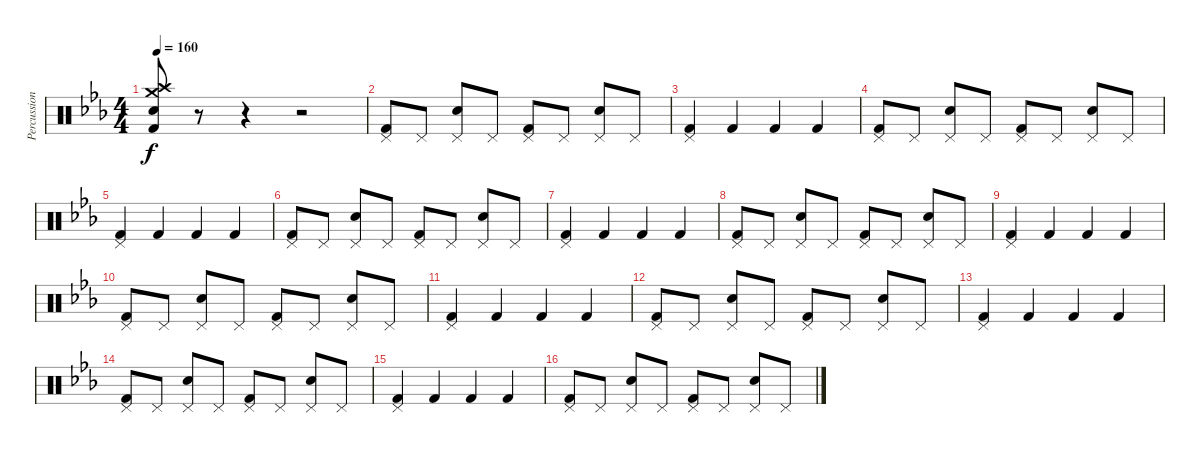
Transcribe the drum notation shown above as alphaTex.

\track ("Percussions" "Percussion") {instrument percussion}
\staff {score}
\articulation defaults
\ts (4 4)
\tempo 160
\clef neutral
\ks eb
("Kick (hit) 2" "Crash medium (hit)" "Crash high (hit)" "Electric Snare (hit)").8{dy f} r.8 r.4 r.2 |
("Pedal Hi-Hat (hit)" "Kick (hit) 2").8 "Pedal Hi-Hat (hit)".8 ("Pedal Hi-Hat (hit)" "Snare (hit) 2").8 "Pedal Hi-Hat (hit)".8 ("Pedal Hi-Hat (hit)" "Kick (hit) 2").8 "Pedal Hi-Hat (hit)".8 ("Pedal Hi-Hat (hit)" "Snare (hit) 2").8 "Pedal Hi-Hat (hit)".8 |
("Pedal Hi-Hat (hit)" "Kick (hit) 2").4 "Kick (hit) 2".4 "Kick (hit) 2".4 "Kick (hit) 2".4 |
("Pedal Hi-Hat (hit)" "Kick (hit) 2").8 "Pedal Hi-Hat (hit)".8 ("Pedal Hi-Hat (hit)" "Snare (hit) 2").8 "Pedal Hi-Hat (hit)".8 ("Pedal Hi-Hat (hit)" "Kick (hit) 2").8 "Pedal Hi-Hat (hit)".8 ("Pedal Hi-Hat (hit)" "Snare (hit) 2").8 "Pedal Hi-Hat (hit)".8 |
("Pedal Hi-Hat (hit)" "Kick (hit) 2").4 "Kick (hit) 2".4 "Kick (hit) 2".4 "Kick (hit) 2".4 |
("Pedal Hi-Hat (hit)" "Kick (hit) 2").8 "Pedal Hi-Hat (hit)".8 ("Pedal Hi-Hat (hit)" "Snare (hit) 2").8 "Pedal Hi-Hat (hit)".8 ("Pedal Hi-Hat (hit)" "Kick (hit) 2").8 "Pedal Hi-Hat (hit)".8 ("Pedal Hi-Hat (hit)" "Snare (hit) 2").8 "Pedal Hi-Hat (hit)".8 |
("Pedal Hi-Hat (hit)" "Kick (hit) 2").4 "Kick (hit) 2".4 "Kick (hit) 2".4 "Kick (hit) 2".4 |
("Pedal Hi-Hat (hit)" "Kick (hit) 2").8 "Pedal Hi-Hat (hit)".8 ("Pedal Hi-Hat (hit)" "Snare (hit) 2").8 "Pedal Hi-Hat (hit)".8 ("Pedal Hi-Hat (hit)" "Kick (hit) 2").8 "Pedal Hi-Hat (hit)".8 ("Pedal Hi-Hat (hit)" "Snare (hit) 2").8 "Pedal Hi-Hat (hit)".8 |
("Pedal Hi-Hat (hit)" "Kick (hit) 2").4 "Kick (hit) 2".4 "Kick (hit) 2".4 "Kick (hit) 2".4 |
("Pedal Hi-Hat (hit)" "Kick (hit) 2").8 "Pedal Hi-Hat (hit)".8 ("Pedal Hi-Hat (hit)" "Snare (hit) 2").8 "Pedal Hi-Hat (hit)".8 ("Pedal Hi-Hat (hit)" "Kick (hit) 2").8 "Pedal Hi-Hat (hit)".8 ("Pedal Hi-Hat (hit)" "Snare (hit) 2").8 "Pedal Hi-Hat (hit)".8 |
("Pedal Hi-Hat (hit)" "Kick (hit) 2").4 "Kick (hit) 2".4 "Kick (hit) 2".4 "Kick (hit) 2".4 |
("Pedal Hi-Hat (hit)" "Kick (hit) 2").8 "Pedal Hi-Hat (hit)".8 ("Pedal Hi-Hat (hit)" "Snare (hit) 2").8 "Pedal Hi-Hat (hit)".8 ("Pedal Hi-Hat (hit)" "Kick (hit) 2").8 "Pedal Hi-Hat (hit)".8 ("Pedal Hi-Hat (hit)" "Snare (hit) 2").8 "Pedal Hi-Hat (hit)".8 |
("Pedal Hi-Hat (hit)" "Kick (hit) 2").4 "Kick (hit) 2".4 "Kick (hit) 2".4 "Kick (hit) 2".4 |
("Pedal Hi-Hat (hit)" "Kick (hit) 2").8 "Pedal Hi-Hat (hit)".8 ("Pedal Hi-Hat (hit)" "Snare (hit) 2").8 "Pedal Hi-Hat (hit)".8 ("Pedal Hi-Hat (hit)" "Kick (hit) 2").8 "Pedal Hi-Hat (hit)".8 ("Pedal Hi-Hat (hit)" "Snare (hit) 2").8 "Pedal Hi-Hat (hit)".8 |
("Pedal Hi-Hat (hit)" "Kick (hit) 2").4 "Kick (hit) 2".4 "Kick (hit) 2".4 "Kick (hit) 2".4 |
("Pedal Hi-Hat (hit)" "Kick (hit) 2").8 "Pedal Hi-Hat (hit)".8 ("Pedal Hi-Hat (hit)" "Snare (hit) 2").8 "Pedal Hi-Hat (hit)".8 ("Pedal Hi-Hat (hit)" "Kick (hit) 2").8 "Pedal Hi-Hat (hit)".8 ("Pedal Hi-Hat (hit)" "Snare (hit) 2").8 "Pedal Hi-Hat (hit)".8
